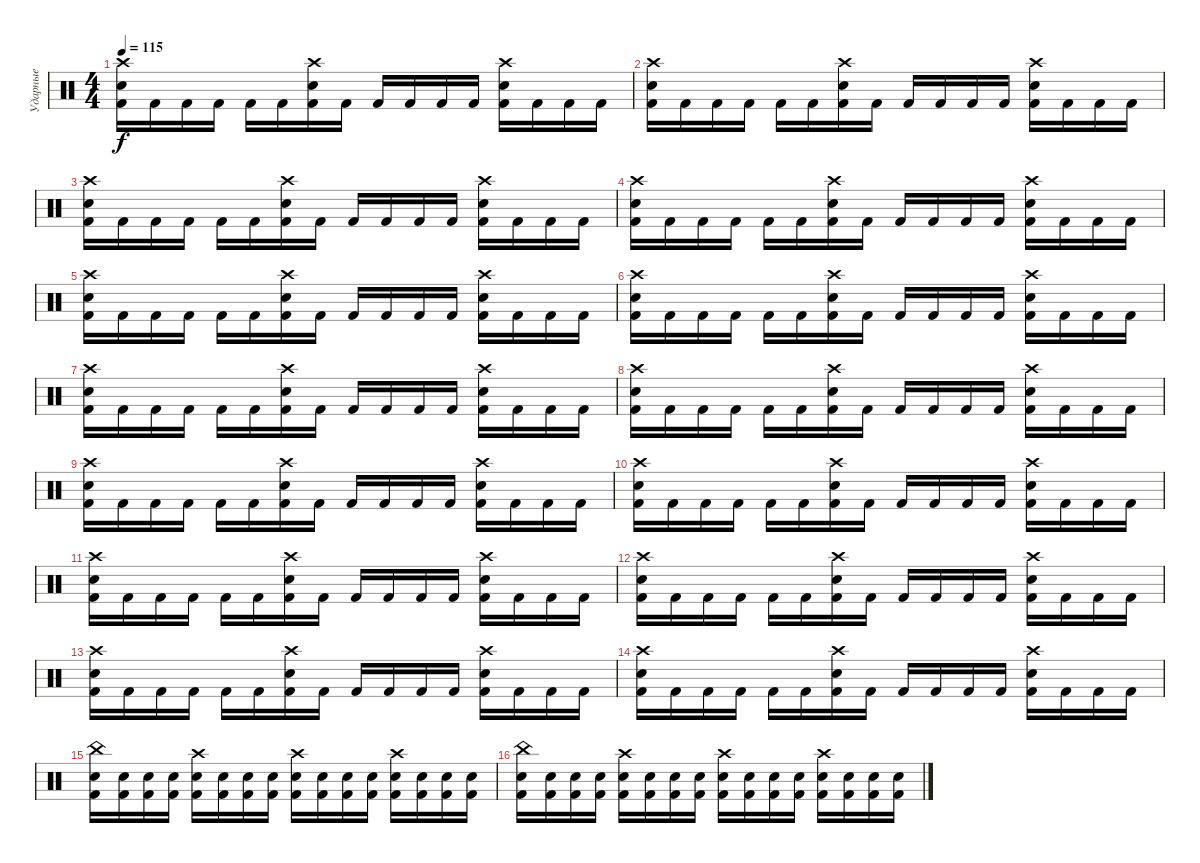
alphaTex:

\track ("Ударные" "Ударные") {mute instrument percussion}
\staff {score}
\articulation defaults
\ts (4 4)
\tempo 115
\clef neutral
\ks c
("Crash high (hit)" "Electric Snare (hit)" "Kick (hit) 2").16{dy f} "Kick (hit) 2".16 "Kick (hit) 2".16 "Kick (hit) 2".16 "Kick (hit) 2".16 "Kick (hit) 2".16 ("Crash high (hit)" "Electric Snare (hit)" "Kick (hit) 2").16 "Kick (hit) 2".16 "Kick (hit) 2".16 "Kick (hit) 2".16 "Kick (hit) 2".16 "Kick (hit) 2".16 ("Crash high (hit)" "Electric Snare (hit)" "Kick (hit) 2").16 "Kick (hit) 2".16 "Kick (hit) 2".16 "Kick (hit) 2".16 |
("Crash high (hit)" "Electric Snare (hit)" "Kick (hit) 2").16 "Kick (hit) 2".16 "Kick (hit) 2".16 "Kick (hit) 2".16 "Kick (hit) 2".16 "Kick (hit) 2".16 ("Crash high (hit)" "Electric Snare (hit)" "Kick (hit) 2").16 "Kick (hit) 2".16 "Kick (hit) 2".16 "Kick (hit) 2".16 "Kick (hit) 2".16 "Kick (hit) 2".16 ("Crash high (hit)" "Electric Snare (hit)" "Kick (hit) 2").16 "Kick (hit) 2".16 "Kick (hit) 2".16 "Kick (hit) 2".16 |
("Crash high (hit)" "Electric Snare (hit)" "Kick (hit) 2").16 "Kick (hit) 2".16 "Kick (hit) 2".16 "Kick (hit) 2".16 "Kick (hit) 2".16 "Kick (hit) 2".16 ("Crash high (hit)" "Electric Snare (hit)" "Kick (hit) 2").16 "Kick (hit) 2".16 "Kick (hit) 2".16 "Kick (hit) 2".16 "Kick (hit) 2".16 "Kick (hit) 2".16 ("Crash high (hit)" "Electric Snare (hit)" "Kick (hit) 2").16 "Kick (hit) 2".16 "Kick (hit) 2".16 "Kick (hit) 2".16 |
("Crash high (hit)" "Electric Snare (hit)" "Kick (hit) 2").16 "Kick (hit) 2".16 "Kick (hit) 2".16 "Kick (hit) 2".16 "Kick (hit) 2".16 "Kick (hit) 2".16 ("Crash high (hit)" "Electric Snare (hit)" "Kick (hit) 2").16 "Kick (hit) 2".16 "Kick (hit) 2".16 "Kick (hit) 2".16 "Kick (hit) 2".16 "Kick (hit) 2".16 ("Crash high (hit)" "Electric Snare (hit)" "Kick (hit) 2").16 "Kick (hit) 2".16 "Kick (hit) 2".16 "Kick (hit) 2".16 |
("Crash high (hit)" "Electric Snare (hit)" "Kick (hit) 2").16 "Kick (hit) 2".16 "Kick (hit) 2".16 "Kick (hit) 2".16 "Kick (hit) 2".16 "Kick (hit) 2".16 ("Crash high (hit)" "Electric Snare (hit)" "Kick (hit) 2").16 "Kick (hit) 2".16 "Kick (hit) 2".16 "Kick (hit) 2".16 "Kick (hit) 2".16 "Kick (hit) 2".16 ("Crash high (hit)" "Electric Snare (hit)" "Kick (hit) 2").16 "Kick (hit) 2".16 "Kick (hit) 2".16 "Kick (hit) 2".16 |
("Crash high (hit)" "Electric Snare (hit)" "Kick (hit) 2").16 "Kick (hit) 2".16 "Kick (hit) 2".16 "Kick (hit) 2".16 "Kick (hit) 2".16 "Kick (hit) 2".16 ("Crash high (hit)" "Electric Snare (hit)" "Kick (hit) 2").16 "Kick (hit) 2".16 "Kick (hit) 2".16 "Kick (hit) 2".16 "Kick (hit) 2".16 "Kick (hit) 2".16 ("Crash high (hit)" "Electric Snare (hit)" "Kick (hit) 2").16 "Kick (hit) 2".16 "Kick (hit) 2".16 "Kick (hit) 2".16 |
("Crash high (hit)" "Electric Snare (hit)" "Kick (hit) 2").16 "Kick (hit) 2".16 "Kick (hit) 2".16 "Kick (hit) 2".16 "Kick (hit) 2".16 "Kick (hit) 2".16 ("Crash high (hit)" "Electric Snare (hit)" "Kick (hit) 2").16 "Kick (hit) 2".16 "Kick (hit) 2".16 "Kick (hit) 2".16 "Kick (hit) 2".16 "Kick (hit) 2".16 ("Crash high (hit)" "Electric Snare (hit)" "Kick (hit) 2").16 "Kick (hit) 2".16 "Kick (hit) 2".16 "Kick (hit) 2".16 |
("Crash high (hit)" "Electric Snare (hit)" "Kick (hit) 2").16 "Kick (hit) 2".16 "Kick (hit) 2".16 "Kick (hit) 2".16 "Kick (hit) 2".16 "Kick (hit) 2".16 ("Crash high (hit)" "Electric Snare (hit)" "Kick (hit) 2").16 "Kick (hit) 2".16 "Kick (hit) 2".16 "Kick (hit) 2".16 "Kick (hit) 2".16 "Kick (hit) 2".16 ("Crash high (hit)" "Electric Snare (hit)" "Kick (hit) 2").16 "Kick (hit) 2".16 "Kick (hit) 2".16 "Kick (hit) 2".16 |
("Crash high (hit)" "Electric Snare (hit)" "Kick (hit) 2").16 "Kick (hit) 2".16 "Kick (hit) 2".16 "Kick (hit) 2".16 "Kick (hit) 2".16 "Kick (hit) 2".16 ("Crash high (hit)" "Electric Snare (hit)" "Kick (hit) 2").16 "Kick (hit) 2".16 "Kick (hit) 2".16 "Kick (hit) 2".16 "Kick (hit) 2".16 "Kick (hit) 2".16 ("Crash high (hit)" "Electric Snare (hit)" "Kick (hit) 2").16 "Kick (hit) 2".16 "Kick (hit) 2".16 "Kick (hit) 2".16 |
("Crash high (hit)" "Electric Snare (hit)" "Kick (hit) 2").16 "Kick (hit) 2".16 "Kick (hit) 2".16 "Kick (hit) 2".16 "Kick (hit) 2".16 "Kick (hit) 2".16 ("Crash high (hit)" "Electric Snare (hit)" "Kick (hit) 2").16 "Kick (hit) 2".16 "Kick (hit) 2".16 "Kick (hit) 2".16 "Kick (hit) 2".16 "Kick (hit) 2".16 ("Crash high (hit)" "Electric Snare (hit)" "Kick (hit) 2").16 "Kick (hit) 2".16 "Kick (hit) 2".16 "Kick (hit) 2".16 |
("Crash high (hit)" "Electric Snare (hit)" "Kick (hit) 2").16 "Kick (hit) 2".16 "Kick (hit) 2".16 "Kick (hit) 2".16 "Kick (hit) 2".16 "Kick (hit) 2".16 ("Crash high (hit)" "Electric Snare (hit)" "Kick (hit) 2").16 "Kick (hit) 2".16 "Kick (hit) 2".16 "Kick (hit) 2".16 "Kick (hit) 2".16 "Kick (hit) 2".16 ("Crash high (hit)" "Electric Snare (hit)" "Kick (hit) 2").16 "Kick (hit) 2".16 "Kick (hit) 2".16 "Kick (hit) 2".16 |
("Crash high (hit)" "Electric Snare (hit)" "Kick (hit) 2").16 "Kick (hit) 2".16 "Kick (hit) 2".16 "Kick (hit) 2".16 "Kick (hit) 2".16 "Kick (hit) 2".16 ("Crash high (hit)" "Electric Snare (hit)" "Kick (hit) 2").16 "Kick (hit) 2".16 "Kick (hit) 2".16 "Kick (hit) 2".16 "Kick (hit) 2".16 "Kick (hit) 2".16 ("Crash high (hit)" "Electric Snare (hit)" "Kick (hit) 2").16 "Kick (hit) 2".16 "Kick (hit) 2".16 "Kick (hit) 2".16 |
("Crash high (hit)" "Electric Snare (hit)" "Kick (hit) 2").16 "Kick (hit) 2".16 "Kick (hit) 2".16 "Kick (hit) 2".16 "Kick (hit) 2".16 "Kick (hit) 2".16 ("Crash high (hit)" "Electric Snare (hit)" "Kick (hit) 2").16 "Kick (hit) 2".16 "Kick (hit) 2".16 "Kick (hit) 2".16 "Kick (hit) 2".16 "Kick (hit) 2".16 ("Crash high (hit)" "Electric Snare (hit)" "Kick (hit) 2").16 "Kick (hit) 2".16 "Kick (hit) 2".16 "Kick (hit) 2".16 |
("Crash high (hit)" "Electric Snare (hit)" "Kick (hit) 2").16 "Kick (hit) 2".16 "Kick (hit) 2".16 "Kick (hit) 2".16 "Kick (hit) 2".16 "Kick (hit) 2".16 ("Crash high (hit)" "Electric Snare (hit)" "Kick (hit) 2").16 "Kick (hit) 2".16 "Kick (hit) 2".16 "Kick (hit) 2".16 "Kick (hit) 2".16 "Kick (hit) 2".16 ("Crash high (hit)" "Electric Snare (hit)" "Kick (hit) 2").16 "Kick (hit) 2".16 "Kick (hit) 2".16 "Kick (hit) 2".16 |
("China (hit)" "Electric Snare (hit)" "Kick (hit) 2").16 ("Electric Snare (hit)" "Kick (hit) 2").16 ("Electric Snare (hit)" "Kick (hit) 2").16 ("Electric Snare (hit)" "Kick (hit) 2").16 ("Crash high (hit)" "Electric Snare (hit)" "Kick (hit) 2").16 ("Electric Snare (hit)" "Kick (hit) 2").16 ("Electric Snare (hit)" "Kick (hit) 2").16 ("Electric Snare (hit)" "Kick (hit) 2").16 ("Crash high (hit)" "Electric Snare (hit)" "Kick (hit) 2").16 ("Electric Snare (hit)" "Kick (hit) 2").16 ("Electric Snare (hit)" "Kick (hit) 2").16 ("Electric Snare (hit)" "Kick (hit) 2").16 ("Crash high (hit)" "Electric Snare (hit)" "Kick (hit) 2").16 ("Electric Snare (hit)" "Kick (hit) 2").16 ("Electric Snare (hit)" "Kick (hit) 2").16 ("Electric Snare (hit)" "Kick (hit) 2").16 |
("China (hit)" "Electric Snare (hit)" "Kick (hit) 2").16 ("Electric Snare (hit)" "Kick (hit) 2").16 ("Electric Snare (hit)" "Kick (hit) 2").16 ("Electric Snare (hit)" "Kick (hit) 2").16 ("Crash high (hit)" "Electric Snare (hit)" "Kick (hit) 2").16 ("Electric Snare (hit)" "Kick (hit) 2").16 ("Electric Snare (hit)" "Kick (hit) 2").16 ("Electric Snare (hit)" "Kick (hit) 2").16 ("Crash high (hit)" "Electric Snare (hit)" "Kick (hit) 2").16 ("Electric Snare (hit)" "Kick (hit) 2").16 ("Electric Snare (hit)" "Kick (hit) 2").16 ("Electric Snare (hit)" "Kick (hit) 2").16 ("Crash high (hit)" "Electric Snare (hit)" "Kick (hit) 2").16 ("Electric Snare (hit)" "Kick (hit) 2").16 ("Electric Snare (hit)" "Kick (hit) 2").16 ("Electric Snare (hit)" "Kick (hit) 2").16
